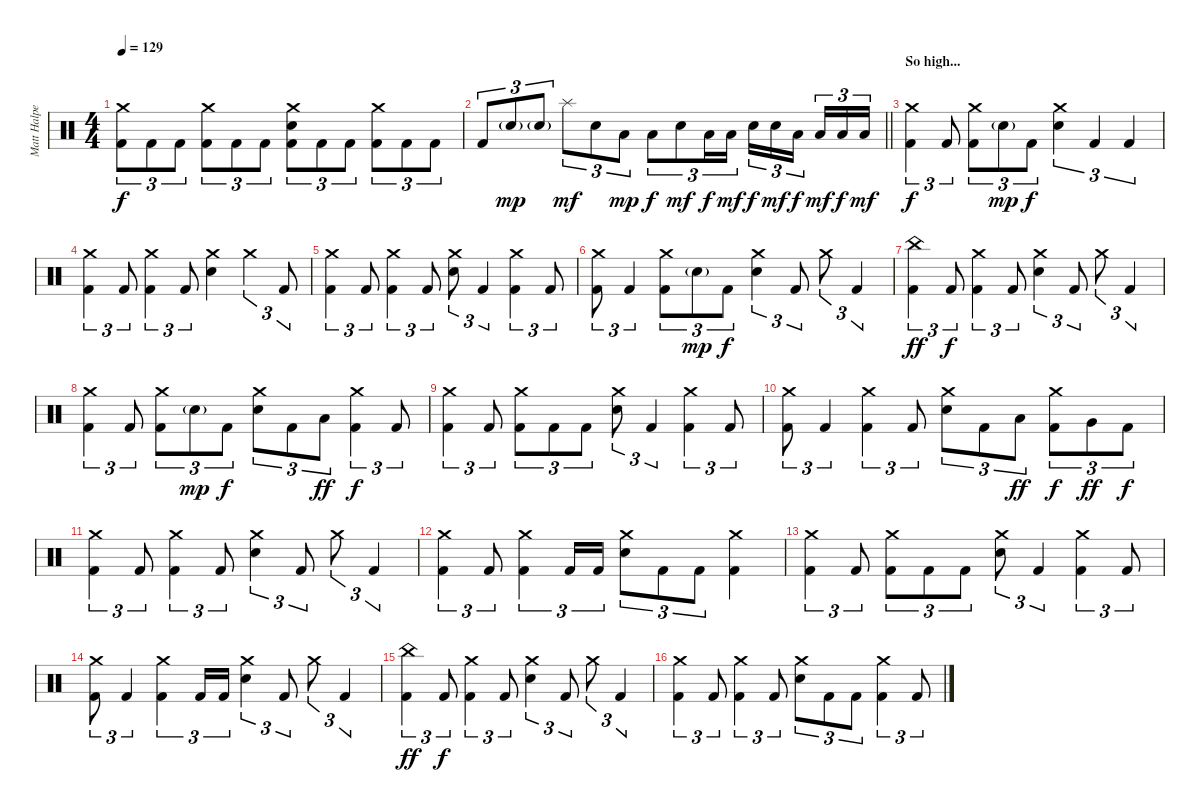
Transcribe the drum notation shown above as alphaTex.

\track ("Matt Halpern - Drums" "Matt Halpe") {instrument percussion}
\staff {score}
\articulation defaults
\ts (4 4)
\tempo 129
\clef neutral
\ks c
("Crash medium (hit)" "Kick (hit) 2").8{tu (3 2) dy f} "Kick (hit) 2".8{tu (3 2)} "Kick (hit) 2".8{tu (3 2)} ("Crash medium (hit)" "Kick (hit) 2").8{tu (3 2)} "Kick (hit) 2".8{tu (3 2)} "Kick (hit) 2".8{tu (3 2)} ("Crash medium (hit)" "Electric Snare (hit)" "Kick (hit) 2").8{tu (3 2)} "Kick (hit) 2".8{tu (3 2)} "Kick (hit) 2".8{tu (3 2)} ("Crash medium (hit)" "Kick (hit) 2").8{tu (3 2)} "Kick (hit) 2".8{tu (3 2)} "Kick (hit) 2".8{tu (3 2)} |
\barLineRight lightlight "Kick (hit) 2".8{tu (3 2)} "Electric Snare (hit)"{g}.8{tu (3 2) dy mp} "Electric Snare (hit)"{g}.8{tu (3 2)} "Splash (hit)".8{tu (3 2) dy mf} "Electric Snare (hit)".8{tu (3 2)} "Low Tom (hit)".8{tu (3 2) dy mp} "Low Tom (hit)".8{tu (3 2) dy f} "Electric Snare (hit)".8{tu (3 2) dy mf} "Low Tom (hit)".16{tu (3 2) dy f} "Low Tom (hit)".16{tu (3 2) dy mf} "Electric Snare (hit)".16{tu (3 2) dy f} "Electric Snare (hit)".16{tu (3 2) dy mf} "Low Tom (hit)".16{tu (3 2) dy f beam splitsecondary} "Low Tom (hit)".16{tu (3 2) dy mf} "Low Floor Tom (hit)".16{tu (3 2) dy f} "Low Floor Tom (hit)".16{tu (3 2) dy mf}
|
\section ("" "So high...")
("Crash medium (hit)" "Kick (hit) 2").4{tu (3 2) dy f} "Kick (hit) 2".8{tu (3 2)} ("Crash medium (hit)" "Kick (hit) 2").8{tu (3 2)} "Electric Snare (hit)"{g}.8{tu (3 2) dy mp} "Kick (hit) 2".8{tu (3 2) dy f} ("Crash medium (hit)" "Electric Snare (hit)").4{tu (3 2)} "Kick (hit) 2".4{tu (3 2)} "Kick (hit) 2".4{tu (3 2)} |
("Crash medium (hit)" "Kick (hit) 2").4{tu (3 2)} "Kick (hit) 2".8{tu (3 2)} ("Crash medium (hit)" "Kick (hit) 2").4{tu (3 2)} "Kick (hit) 2".8{tu (3 2)} ("Crash medium (hit)" "Electric Snare (hit)").4 "Crash medium (hit)".4{tu (3 2)} "Kick (hit) 2".8{tu (3 2)} |
("Crash medium (hit)" "Kick (hit) 2").4{tu (3 2)} "Kick (hit) 2".8{tu (3 2)} ("Crash medium (hit)" "Kick (hit) 2").4{tu (3 2)} "Kick (hit) 2".8{tu (3 2)} ("Crash medium (hit)" "Electric Snare (hit)").8{tu (3 2)} "Kick (hit) 2".4{tu (3 2)} ("Crash medium (hit)" "Kick (hit) 2").4{tu (3 2)} "Kick (hit) 2".8{tu (3 2)} |
("Crash medium (hit)" "Kick (hit) 2").8{tu (3 2)} "Kick (hit) 2".4{tu (3 2)} ("Crash medium (hit)" "Kick (hit) 2").8{tu (3 2)} "Electric Snare (hit)"{g}.8{tu (3 2) dy mp} "Kick (hit) 2".8{tu (3 2) dy f} ("Crash medium (hit)" "Electric Snare (hit)").4{tu (3 2)} "Kick (hit) 2".8{tu (3 2)} "Crash medium (hit)".8{tu (3 2)} "Kick (hit) 2".4{tu (3 2)} |
("China (hit)" "Kick (hit) 2").4{tu (3 2) dy ff} "Kick (hit) 2".8{tu (3 2) dy f} ("Crash medium (hit)" "Kick (hit) 2").4{tu (3 2)} "Kick (hit) 2".8{tu (3 2)} ("Crash medium (hit)" "Electric Snare (hit)").4{tu (3 2)} "Kick (hit) 2".8{tu (3 2)} "Crash medium (hit)".8{tu (3 2)} "Kick (hit) 2".4{tu (3 2)} |
("Crash medium (hit)" "Kick (hit) 2").4{tu (3 2)} "Kick (hit) 2".8{tu (3 2)} ("Crash medium (hit)" "Kick (hit) 2").8{tu (3 2)} "Electric Snare (hit)"{g}.8{tu (3 2) dy mp} "Kick (hit) 2".8{tu (3 2) dy f} ("Crash medium (hit)" "Electric Snare (hit)").8{tu (3 2)} "Kick (hit) 2".8{tu (3 2)} "Low Floor Tom (hit)".8{tu (3 2) dy ff} ("Crash medium (hit)" "Kick (hit) 2").4{tu (3 2) dy f} "Kick (hit) 2".8{tu (3 2)} |
("Crash medium (hit)" "Kick (hit) 2").4{tu (3 2)} "Kick (hit) 2".8{tu (3 2)} ("Crash medium (hit)" "Kick (hit) 2").8{tu (3 2)} "Kick (hit) 2".8{tu (3 2)} "Kick (hit) 2".8{tu (3 2)} ("Crash medium (hit)" "Electric Snare (hit)").8{tu (3 2)} "Kick (hit) 2".4{tu (3 2)} ("Crash medium (hit)" "Kick (hit) 2").4{tu (3 2)} "Kick (hit) 2".8{tu (3 2)} |
("Crash medium (hit)" "Kick (hit) 2").8{tu (3 2)} "Kick (hit) 2".4{tu (3 2)} ("Crash medium (hit)" "Kick (hit) 2").4{tu (3 2)} "Kick (hit) 2".8{tu (3 2)} ("Crash medium (hit)" "Electric Snare (hit)").8{tu (3 2)} "Kick (hit) 2".8{tu (3 2)} "Low Tom (hit)".8{tu (3 2) dy ff} ("Crash medium (hit)" "Kick (hit) 2").8{tu (3 2) dy f} "Very Low Tom (hit)".8{tu (3 2) dy ff} "Kick (hit) 2".8{tu (3 2) dy f} |
("Crash medium (hit)" "Kick (hit) 2").4{tu (3 2)} "Kick (hit) 2".8{tu (3 2)} ("Crash medium (hit)" "Kick (hit) 2").4{tu (3 2)} "Kick (hit) 2".8{tu (3 2)} ("Crash medium (hit)" "Electric Snare (hit)").4{tu (3 2)} "Kick (hit) 2".8{tu (3 2)} "Crash medium (hit)".8{tu (3 2)} "Kick (hit) 2".4{tu (3 2)} |
("Crash medium (hit)" "Kick (hit) 2").4{tu (3 2)} "Kick (hit) 2".8{tu (3 2)} ("Crash medium (hit)" "Kick (hit) 2").4{tu (3 2)} "Kick (hit) 2".16{tu (3 2)} "Kick (hit) 2".16{tu (3 2)} ("Crash medium (hit)" "Electric Snare (hit)").8{tu (3 2)} "Kick (hit) 2".8{tu (3 2)} "Kick (hit) 2".8{tu (3 2)} ("Crash medium (hit)" "Kick (hit) 2").4 |
("Crash medium (hit)" "Kick (hit) 2").4{tu (3 2)} "Kick (hit) 2".8{tu (3 2)} ("Crash medium (hit)" "Kick (hit) 2").8{tu (3 2)} "Kick (hit) 2".8{tu (3 2)} "Kick (hit) 2".8{tu (3 2)} ("Crash medium (hit)" "Electric Snare (hit)").8{tu (3 2)} "Kick (hit) 2".4{tu (3 2)} ("Crash medium (hit)" "Kick (hit) 2").4{tu (3 2)} "Kick (hit) 2".8{tu (3 2)} |
("Crash medium (hit)" "Kick (hit) 2").8{tu (3 2)} "Kick (hit) 2".4{tu (3 2)} ("Crash medium (hit)" "Kick (hit) 2").4{tu (3 2)} "Kick (hit) 2".16{tu (3 2)} "Kick (hit) 2".16{tu (3 2)} ("Crash medium (hit)" "Electric Snare (hit)").4{tu (3 2)} "Kick (hit) 2".8{tu (3 2)} "Crash medium (hit)".8{tu (3 2)} "Kick (hit) 2".4{tu (3 2)} |
("China (hit)" "Kick (hit) 2").4{tu (3 2) dy ff} "Kick (hit) 2".8{tu (3 2) dy f} ("Crash medium (hit)" "Kick (hit) 2").4{tu (3 2)} "Kick (hit) 2".8{tu (3 2)} ("Crash medium (hit)" "Electric Snare (hit)").4{tu (3 2)} "Kick (hit) 2".8{tu (3 2)} "Crash medium (hit)".8{tu (3 2)} "Kick (hit) 2".4{tu (3 2)} |
("Crash medium (hit)" "Kick (hit) 2").4{tu (3 2)} "Kick (hit) 2".8{tu (3 2)} ("Crash medium (hit)" "Kick (hit) 2").4{tu (3 2)} "Kick (hit) 2".8{tu (3 2)} ("Crash medium (hit)" "Electric Snare (hit)").8{tu (3 2)} "Kick (hit) 2".8{tu (3 2)} "Kick (hit) 2".8{tu (3 2)} ("Crash medium (hit)" "Kick (hit) 2").4{tu (3 2)} "Kick (hit) 2".8{tu (3 2)}
